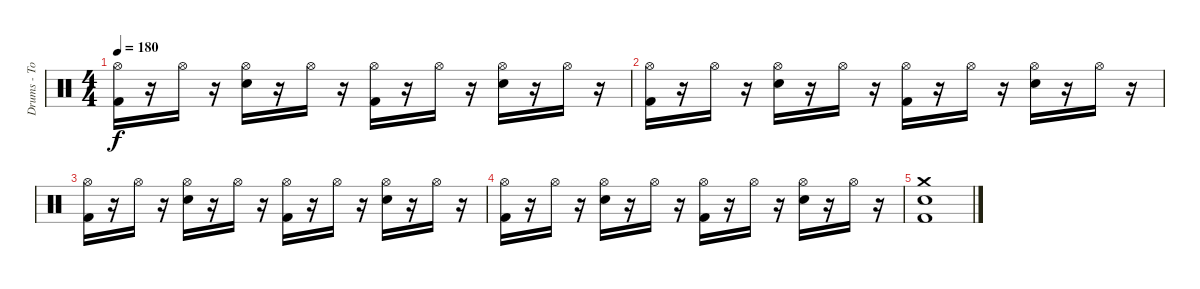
\track ("Drums - Tommy Ramone" "Drums - To") {instrument percussion}
\staff {score}
\articulation defaults
\ts (4 4)
\tempo 180
\clef neutral
\ks c
("Hi-Hat (open)" "Kick (hit) 2").16{dy f} r.16 "Hi-Hat (open)".16 r.16 ("Hi-Hat (open)" "Electric Snare (hit)").16 r.16 "Hi-Hat (open)".16 r.16 ("Hi-Hat (open)" "Kick (hit) 2").16 r.16 "Hi-Hat (open)".16 r.16 ("Hi-Hat (open)" "Electric Snare (hit)").16 r.16 "Hi-Hat (open)".16 r.16 |
("Hi-Hat (open)" "Kick (hit) 2").16 r.16 "Hi-Hat (open)".16 r.16 ("Hi-Hat (open)" "Electric Snare (hit)").16 r.16 "Hi-Hat (open)".16 r.16 ("Hi-Hat (open)" "Kick (hit) 2").16 r.16 "Hi-Hat (open)".16 r.16 ("Hi-Hat (open)" "Electric Snare (hit)").16 r.16 "Hi-Hat (open)".16 r.16 |
("Hi-Hat (open)" "Kick (hit) 2").16 r.16 "Hi-Hat (open)".16 r.16 ("Hi-Hat (open)" "Electric Snare (hit)").16 r.16 "Hi-Hat (open)".16 r.16 ("Hi-Hat (open)" "Kick (hit) 2").16 r.16 "Hi-Hat (open)".16 r.16 ("Hi-Hat (open)" "Electric Snare (hit)").16 r.16 "Hi-Hat (open)".16 r.16 |
("Hi-Hat (open)" "Kick (hit) 2").16 r.16 "Hi-Hat (open)".16 r.16 ("Hi-Hat (open)" "Electric Snare (hit)").16 r.16 "Hi-Hat (open)".16 r.16 ("Hi-Hat (open)" "Kick (hit) 2").16 r.16 "Hi-Hat (open)".16 r.16 ("Hi-Hat (open)" "Electric Snare (hit)").16 r.16 "Hi-Hat (open)".16 r.16 |
("Crash medium (hit)" "Electric Snare (hit)" "Kick (hit) 2").1
